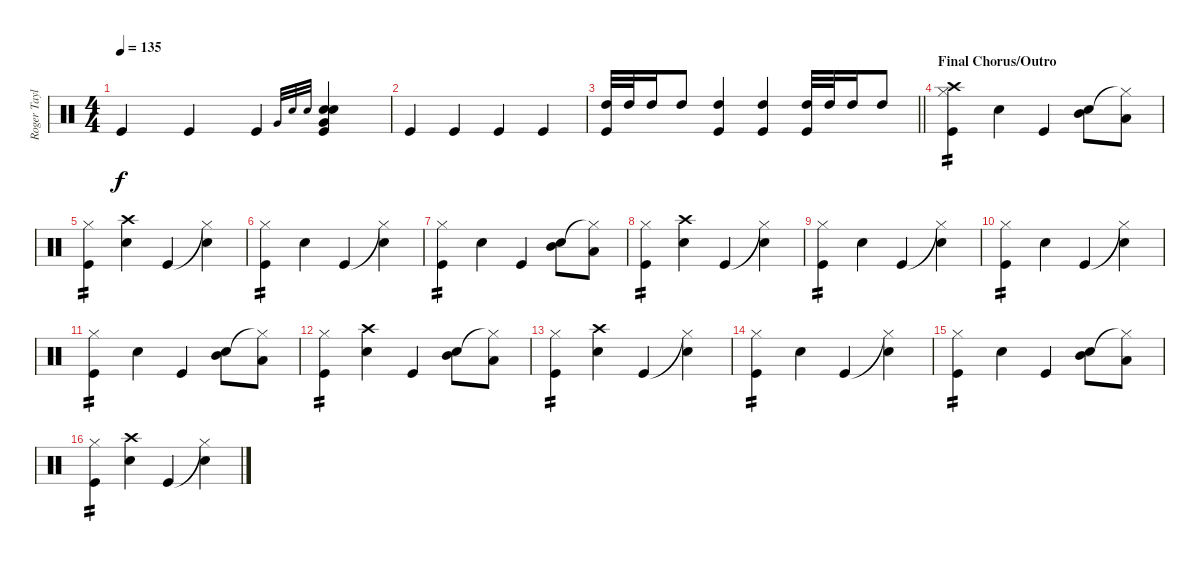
\track ("Roger Taylor" "Roger Tayl") {instrument percussion}
\staff {score}
\articulation defaults
\ts (4 4)
\tempo 135
\clef neutral
\ks c "Kick (hit)".4{dy f} "Kick (hit)".4 "Kick (hit)".4 "Very Low Tom (hit)".32{gr onbeat} "Electric Snare (hit)".32{gr onbeat} "Snare (hit) 2".32{gr onbeat}
("Very Low Tom (hit)" "Electric Snare (hit)" "Snare (hit) 2" "Kick (hit)").4 |
"Kick (hit)".4 "Kick (hit)".4 "Kick (hit)".4 "Kick (hit)".4 |
\barLineRight lightlight
("High Tom (hit)" "Kick (hit)").32 "High Tom (hit)".32 "High Tom (hit)".16 "High Tom (hit)".8 ("High Tom (hit)" "Kick (hit)").4 ("High Tom (hit)" "Kick (hit)").4 ("High Tom (hit)" "Kick (hit)").32 "High Tom (hit)".32 "High Tom (hit)".16 "High Tom (hit)".8 |
\section ("" "Final Chorus/Outro")
("Crash high (hit)" "Hi-Hat (closed)" "Kick (hit)").4{tp 2} "Snare (hit) 2".4 "Kick (hit)".4 ("Mid Tom (hit)" "Snare (hit) 2").8 ("Hi-Hat (closed)"{t} "Low Tom (hit)").8 |
("Hi-Hat (closed)" "Kick (hit)").4{tp 2} ("Crash high (hit)" "Snare (hit) 2").4 "Kick (hit)".4 ("Hi-Hat (closed)"{t} "Snare (hit) 2").4 |
("Hi-Hat (closed)" "Kick (hit)").4{tp 2} "Snare (hit) 2".4 "Kick (hit)".4 ("Hi-Hat (closed)"{t} "Snare (hit) 2").4 |
("Hi-Hat (closed)" "Kick (hit)").4{tp 2} "Snare (hit) 2".4 "Kick (hit)".4 ("Mid Tom (hit)" "Snare (hit) 2").8 ("Hi-Hat (closed)"{t} "Low Tom (hit)").8 |
("Hi-Hat (closed)" "Kick (hit)").4{tp 2} ("Crash high (hit)" "Snare (hit) 2").4 "Kick (hit)".4 ("Hi-Hat (closed)"{t} "Snare (hit) 2").4 |
("Hi-Hat (closed)" "Kick (hit)").4{tp 2} "Snare (hit) 2".4 "Kick (hit)".4 ("Hi-Hat (closed)"{t} "Snare (hit) 2").4 |
("Hi-Hat (closed)" "Kick (hit)").4{tp 2} "Snare (hit) 2".4 "Kick (hit)".4 ("Hi-Hat (closed)"{t} "Snare (hit) 2").4 |
("Hi-Hat (closed)" "Kick (hit)").4{tp 2} "Snare (hit) 2".4 "Kick (hit)".4 ("Mid Tom (hit)" "Snare (hit) 2").8 ("Hi-Hat (closed)"{t} "Low Tom (hit)").8 |
("Hi-Hat (closed)" "Kick (hit)").4{tp 2} ("Crash high (hit)" "Snare (hit) 2").4 "Kick (hit)".4 ("Mid Tom (hit)" "Snare (hit) 2").8 ("Hi-Hat (closed)"{t} "Low Tom (hit)").8 |
("Hi-Hat (closed)" "Kick (hit)").4{tp 2} ("Crash high (hit)" "Snare (hit) 2").4 "Kick (hit)".4 ("Hi-Hat (closed)"{t} "Snare (hit) 2").4 |
("Hi-Hat (closed)" "Kick (hit)").4{tp 2} "Snare (hit) 2".4 "Kick (hit)".4 ("Hi-Hat (closed)"{t} "Snare (hit) 2").4 |
("Hi-Hat (closed)" "Kick (hit)").4{tp 2} "Snare (hit) 2".4 "Kick (hit)".4 ("Mid Tom (hit)" "Snare (hit) 2").8 ("Hi-Hat (closed)"{t} "Low Tom (hit)").8 |
("Hi-Hat (closed)" "Kick (hit)").4{tp 2} ("Crash high (hit)" "Snare (hit) 2").4 "Kick (hit)".4 ("Hi-Hat (closed)"{t} "Snare (hit) 2").4
